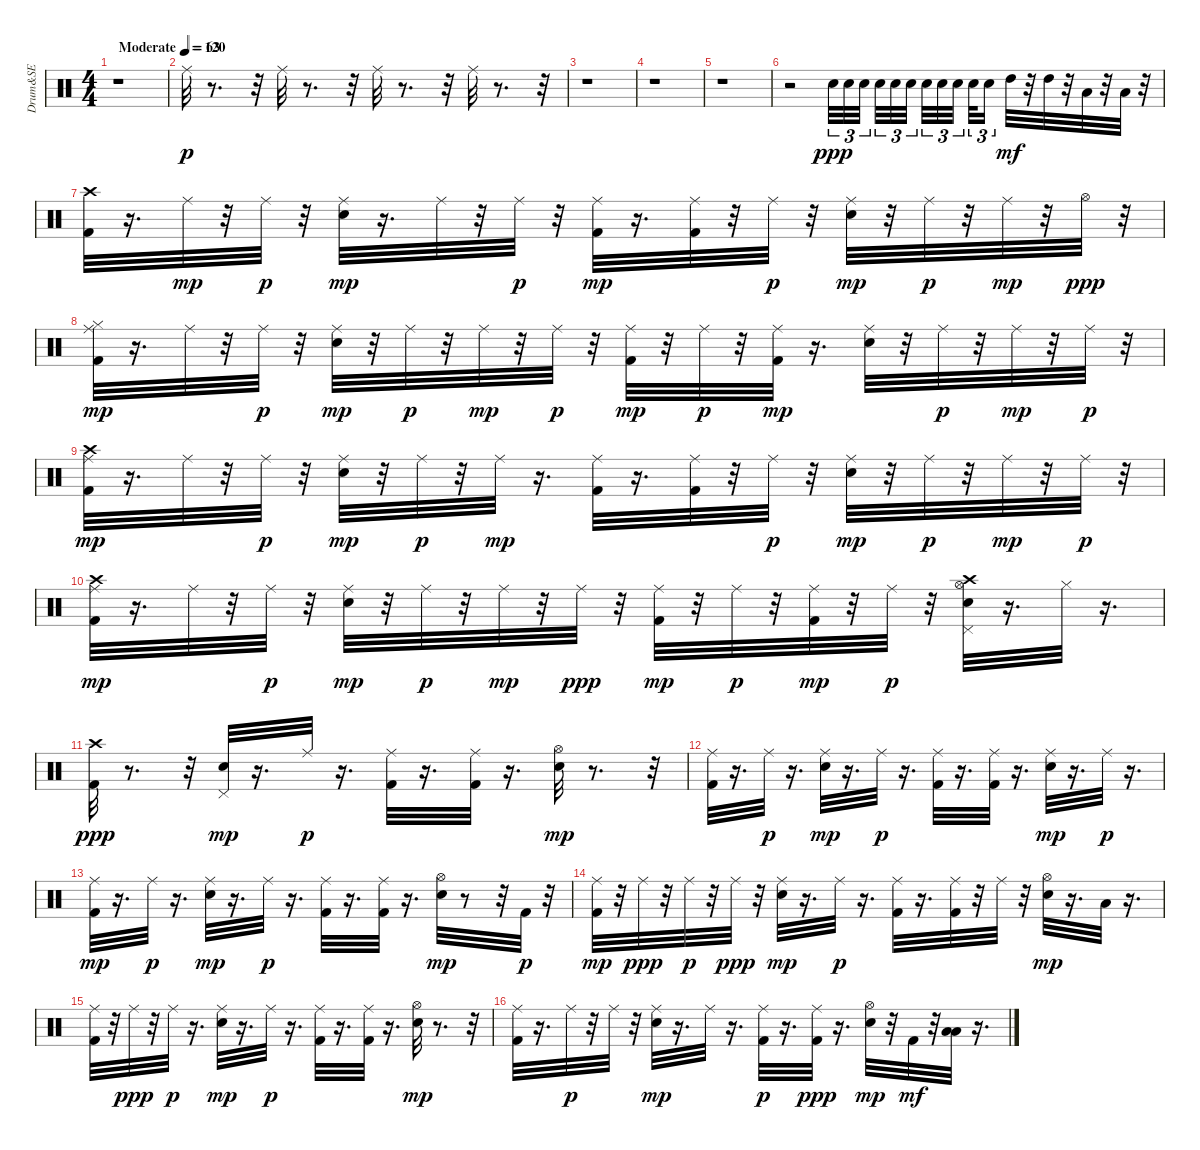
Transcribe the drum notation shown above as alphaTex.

\track ("Drum&SE" "Drum&SE") {instrument percussion}
\staff {score}
\articulation defaults
\ts (4 4)
\tempo (120 "Moderate")
\clef neutral
\ks c
r.1{dy p} |
\tempo (63)
"Ride (middle)".32 r.8{d} r.32 "Ride (middle)".32 r.8{d} r.32 "Ride (middle)".32 r.8{d} r.32 "Ride (middle)".32 r.8{d} r.32 |
r.1 |
r.1 |
r.1 |
r.2 "Snare (hit) 2".32{tu (3 2) dy ppp} "Snare (hit) 2".32{tu (3 2)} "Snare (hit) 2".32{tu (3 2) beam splitsecondary} "Snare (hit) 2".32{tu (3 2)} "Snare (hit) 2".32{tu (3 2)} "Snare (hit) 2".32{tu (3 2) beam splitsecondary} "Snare (hit) 2".32{tu (3 2)} "Snare (hit) 2".32{tu (3 2)} "Snare (hit) 2".32{tu (3 2) beam splitsecondary} "Snare (hit) 2".32{tu (3 2)} "Snare (hit) 2".16{tu (3 2)} "High Tom (hit)".32{dy mf} r.32 "High Tom (hit)".32 r.32 "Low Floor Tom (hit)".32 r.32 "Low Tom (hit)".32 r.32 |
("Kick (hit) 2" "Crash high (hit)").32 r.16{d} "Ride (middle)".32{dy mp} r.32 "Ride (middle)".32{dy p} r.32 ("Snare (hit) 2" "Ride (middle)").32{dy mp} r.16{d} "Ride (middle)".32 r.32 "Ride (middle)".32{dy p} r.32 ("Kick (hit) 2" "Ride (middle)").32{dy mp} r.16{d} ("Kick (hit) 2" "Ride (middle)").32 r.32 "Ride (middle)".32{dy p} r.32 ("Snare (hit) 2" "Ride (middle)").32{dy mp} r.32 "Ride (middle)".32{dy p} r.32 "Ride (middle)".32{dy mp} r.32 "Hi-Hat (open)".32{dy ppp} r.32 |
("Kick (hit) 2" "Hi-Hat (closed)" "Ride (middle)").32{dy mp} r.16{d} "Ride (middle)".32 r.32 "Ride (middle)".32{dy p} r.32 ("Snare (hit) 2" "Ride (middle)").32{dy mp} r.32 "Ride (middle)".32{dy p} r.32 "Ride (middle)".32{dy mp} r.32 "Ride (middle)".32{dy p} r.32 ("Kick (hit) 2" "Ride (middle)").32{dy mp} r.32 "Ride (middle)".32{dy p} r.32 ("Kick (hit) 2" "Ride (middle)").32{dy mp} r.16{d} ("Snare (hit) 2" "Ride (middle)").32 r.32 "Ride (middle)".32{dy p} r.32 "Ride (middle)".32{dy mp} r.32 "Ride (middle)".32{dy p} r.32 |
("Kick (hit) 2" "Crash high (hit)" "Ride (middle)").32{dy mp} r.16{d} "Ride (middle)".32 r.32 "Ride (middle)".32{dy p} r.32 ("Snare (hit) 2" "Ride (middle)").32{dy mp} r.32 "Ride (middle)".32{dy p} r.32 "Ride (middle)".32{dy mp} r.16{d} ("Kick (hit) 2" "Ride (middle)").32 r.16{d} ("Kick (hit) 2" "Ride (middle)").32 r.32 "Ride (middle)".32{dy p} r.32 ("Snare (hit) 2" "Ride (middle)").32{dy mp} r.32 "Ride (middle)".32{dy p} r.32 "Ride (middle)".32{dy mp} r.32 "Ride (middle)".32{dy p} r.32 |
("Kick (hit) 2" "Crash high (hit)" "Ride (middle)").32{dy mp} r.16{d} "Ride (middle)".32 r.32 "Ride (middle)".32{dy p} r.32 ("Snare (hit) 2" "Ride (middle)").32{dy mp} r.32 "Ride (middle)".32{dy p} r.32 "Ride (middle)".32{dy mp} r.32 "Ride (middle)".32{dy ppp} r.32 ("Kick (hit) 2" "Ride (middle)").32{dy mp} r.32 "Ride (middle)".32{dy p} r.32 ("Kick (hit) 2" "Ride (middle)").32{dy mp} r.32 "Ride (middle)".32{dy p} r.32 ("Snare (hit) 2" "Pedal Hi-Hat (hit)" "Hi-Hat (open)" "Crash high (hit)").32 r.16{d} "Hi-Hat (closed)".32 r.16{d} |
("Kick (hit) 2" "Crash high (hit)").32{dy ppp} r.8{d} r.32 ("Snare (hit) 2" "Pedal Hi-Hat (hit)").32{dy mp} r.16{d} "Ride (middle)".32{dy p} r.16{d} ("Kick (hit) 2" "Ride (middle)").32 r.16{d} ("Kick (hit) 2" "Ride (middle)").32 r.16{d} ("Snare (hit) 2" "Hi-Hat (open)").32{dy mp} r.8{d} r.32 |
("Kick (hit) 2" "Ride (middle)").32 r.16{d} "Ride (middle)".32{dy p} r.16{d} ("Snare (hit) 2" "Ride (middle)").32{dy mp} r.16{d} "Ride (middle)".32{dy p} r.16{d} ("Kick (hit) 2" "Ride (middle)").32 r.16{d} ("Kick (hit) 2" "Ride (middle)").32 r.16{d} ("Snare (hit) 2" "Ride (middle)").32{dy mp} r.16{d} "Ride (middle)".32{dy p} r.16{d} |
("Kick (hit) 2" "Ride (middle)").32{dy mp} r.16{d} "Ride (middle)".32{dy p} r.16{d} ("Snare (hit) 2" "Ride (middle)").32{dy mp} r.16{d} "Ride (middle)".32{dy p} r.16{d} ("Kick (hit) 2" "Ride (middle)").32 r.16{d} ("Kick (hit) 2" "Ride (middle)").32 r.16{d} ("Snare (hit) 2" "Hi-Hat (open)").32{dy mp} r.8 r.32 "Kick (hit) 2".32{dy p} r.32 |
("Kick (hit) 2" "Ride (middle)").32{dy mp} r.32 "Ride (middle)".32{dy ppp} r.32 "Ride (middle)".32{dy p} r.32 "Ride (middle)".32{dy ppp} r.32 ("Snare (hit) 2" "Ride (middle)").32{dy mp} r.16{d} "Ride (middle)".32{dy p} r.16{d} ("Kick (hit) 2" "Ride (middle)").32 r.16{d} ("Kick (hit) 2" "Ride (middle)").32 r.32 "Ride (middle)".32 r.32 ("Snare (hit) 2" "Hi-Hat (open)").32{dy mp} r.16{d} "Low Tom (hit)".32 r.16{d} |
("Kick (hit) 2" "Ride (middle)").32 r.32 "Ride (middle)".32{dy ppp} r.32 "Ride (middle)".32{dy p} r.16{d} ("Snare (hit) 2" "Ride (middle)").32{dy mp} r.16{d} "Ride (middle)".32{dy p} r.16{d} ("Kick (hit) 2" "Ride (middle)").32 r.16{d} ("Kick (hit) 2" "Ride (middle)").32 r.16{d} ("Snare (hit) 2" "Hi-Hat (open)").32{dy mp} r.8{d} r.32 |
("Kick (hit) 2" "Ride (middle)").32 r.16{d} "Ride (middle)".32{dy p} r.32 "Ride (middle)".32 r.32 ("Snare (hit) 2" "Ride (middle)").32{dy mp} r.16{d} "Ride (middle)".32 r.16{d} ("Kick (hit) 2" "Ride (middle)").32{dy p} r.16{d} ("Kick (hit) 2" "Ride (middle)").32{dy ppp} r.16{d} ("Snare (hit) 2" "Hi-Hat (open)").32{dy mp} r.32 "Kick (hit) 2".32{dy mf} r.32 ("Low Floor Tom (hit)" "Low Tom (hit)").32 r.16{d}
